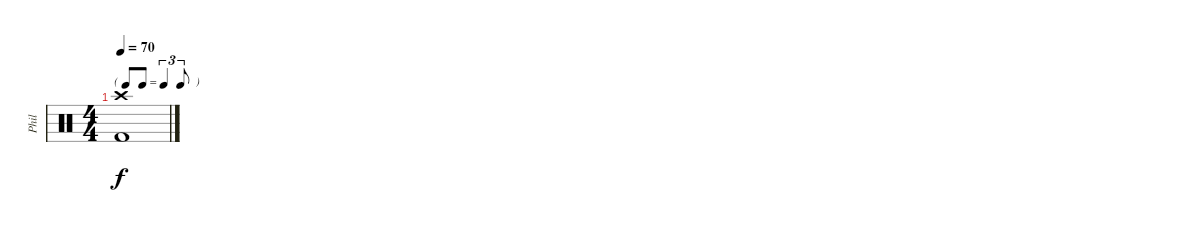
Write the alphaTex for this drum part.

\track ("Phil" "Phil") {instrument percussion}
\staff {score}
\articulation defaults
\ts (4 4)
\tf triplet8th
\tempo 70
\clef neutral
\ks c
("Crash high (hit)" "Kick (hit) 2").1{dy f}
